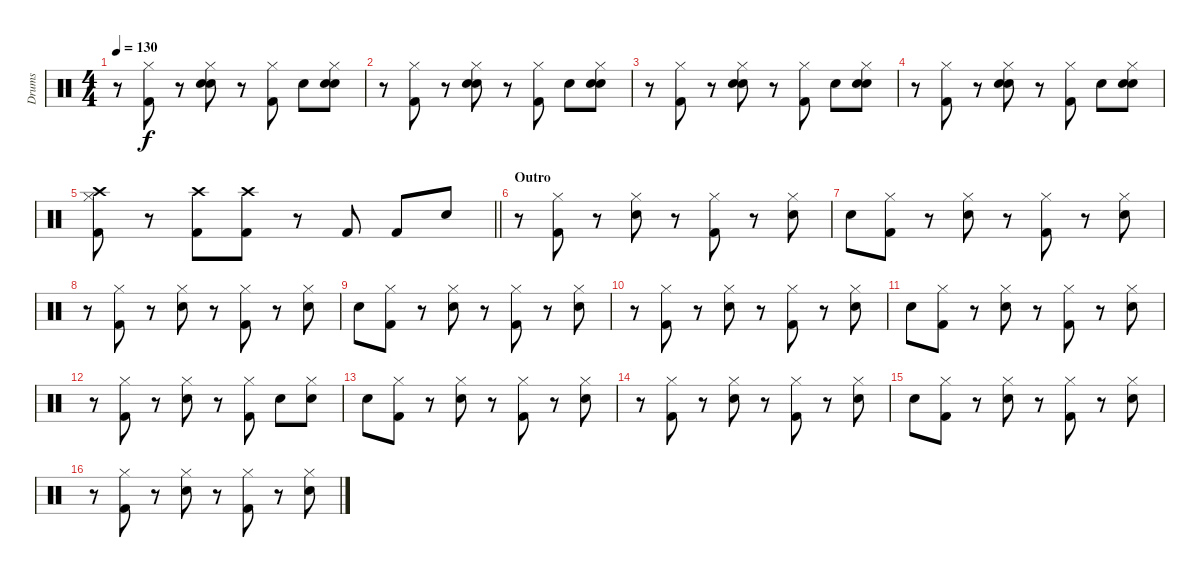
\track ("Drums" "Drums") {instrument percussion}
\staff {score}
\articulation defaults
\ts (4 4)
\tempo 130
\clef neutral
\ks c
r.8{dy f} ("Hi-Hat (closed)" "Kick (hit) 2").8 r.8 ("Hi-Hat (closed)" "Snare (hit) 2" "Hand Clap (hit)").8 r.8 ("Hi-Hat (closed)" "Kick (hit) 2").8 "Hand Clap (hit)".8 ("Hi-Hat (closed)" "Snare (hit) 2" "Hand Clap (hit)").8 |
r.8 ("Hi-Hat (closed)" "Kick (hit) 2").8 r.8 ("Hi-Hat (closed)" "Snare (hit) 2" "Hand Clap (hit)").8 r.8 ("Hi-Hat (closed)" "Kick (hit) 2").8 "Hand Clap (hit)".8 ("Hi-Hat (closed)" "Snare (hit) 2" "Hand Clap (hit)").8 |
r.8 ("Hi-Hat (closed)" "Kick (hit) 2").8 r.8 ("Hi-Hat (closed)" "Snare (hit) 2" "Hand Clap (hit)").8 r.8 ("Hi-Hat (closed)" "Kick (hit) 2").8 "Hand Clap (hit)".8 ("Hi-Hat (closed)" "Snare (hit) 2" "Hand Clap (hit)").8 |
r.8 ("Hi-Hat (closed)" "Kick (hit) 2").8 r.8 ("Hi-Hat (closed)" "Snare (hit) 2" "Hand Clap (hit)").8 r.8 ("Hi-Hat (closed)" "Kick (hit) 2").8 "Hand Clap (hit)".8 ("Hi-Hat (closed)" "Snare (hit) 2" "Hand Clap (hit)").8 |
\barLineRight lightlight
("Hi-Hat (closed)" "Crash high (hit)" "Kick (hit) 2").8 r.8 ("Crash high (hit)" "Kick (hit) 2").8 ("Crash high (hit)" "Kick (hit) 2").8 r.8 "Kick (hit) 2".8 "Kick (hit) 2".8 "Snare (hit) 2".8 |
\section ("" "Outro")
r.8 ("Hi-Hat (closed)" "Kick (hit) 2").8 r.8 ("Hi-Hat (closed)" "Snare (hit) 2").8 r.8 ("Hi-Hat (closed)" "Kick (hit) 2").8 r.8 ("Hi-Hat (closed)" "Snare (hit) 2").8 |
"Snare (hit) 2".8 ("Hi-Hat (closed)" "Kick (hit) 2").8 r.8 ("Hi-Hat (closed)" "Snare (hit) 2").8 r.8 ("Hi-Hat (closed)" "Kick (hit) 2").8 r.8 ("Hi-Hat (closed)" "Snare (hit) 2").8 |
r.8 ("Hi-Hat (closed)" "Kick (hit) 2").8 r.8 ("Hi-Hat (closed)" "Snare (hit) 2").8 r.8 ("Hi-Hat (closed)" "Kick (hit) 2").8 r.8 ("Hi-Hat (closed)" "Snare (hit) 2").8 |
"Snare (hit) 2".8 ("Hi-Hat (closed)" "Kick (hit) 2").8 r.8 ("Hi-Hat (closed)" "Snare (hit) 2").8 r.8 ("Hi-Hat (closed)" "Kick (hit) 2").8 r.8 ("Hi-Hat (closed)" "Snare (hit) 2").8 |
r.8 ("Hi-Hat (closed)" "Kick (hit) 2").8 r.8 ("Hi-Hat (closed)" "Snare (hit) 2").8 r.8 ("Hi-Hat (closed)" "Kick (hit) 2").8 r.8 ("Hi-Hat (closed)" "Snare (hit) 2").8 |
"Snare (hit) 2".8 ("Hi-Hat (closed)" "Kick (hit) 2").8 r.8 ("Hi-Hat (closed)" "Snare (hit) 2").8 r.8 ("Hi-Hat (closed)" "Kick (hit) 2").8 r.8 ("Hi-Hat (closed)" "Snare (hit) 2").8 |
r.8 ("Hi-Hat (closed)" "Kick (hit) 2").8 r.8 ("Hi-Hat (closed)" "Snare (hit) 2").8 r.8 ("Hi-Hat (closed)" "Kick (hit) 2").8 "Snare (hit) 2".8 ("Hi-Hat (closed)" "Snare (hit) 2").8 |
"Snare (hit) 2".8 ("Hi-Hat (closed)" "Kick (hit) 2").8 r.8 ("Hi-Hat (closed)" "Snare (hit) 2").8 r.8 ("Hi-Hat (closed)" "Kick (hit) 2").8 r.8 ("Hi-Hat (closed)" "Snare (hit) 2").8 |
r.8 ("Hi-Hat (closed)" "Kick (hit) 2").8 r.8 ("Hi-Hat (closed)" "Snare (hit) 2").8 r.8 ("Hi-Hat (closed)" "Kick (hit) 2").8 r.8 ("Hi-Hat (closed)" "Snare (hit) 2").8 |
"Snare (hit) 2".8 ("Hi-Hat (closed)" "Kick (hit) 2").8 r.8 ("Hi-Hat (closed)" "Snare (hit) 2").8 r.8 ("Hi-Hat (closed)" "Kick (hit) 2").8 r.8 ("Hi-Hat (closed)" "Snare (hit) 2").8 |
r.8 ("Hi-Hat (closed)" "Kick (hit) 2").8 r.8 ("Hi-Hat (closed)" "Snare (hit) 2").8 r.8 ("Hi-Hat (closed)" "Kick (hit) 2").8 r.8 ("Hi-Hat (closed)" "Snare (hit) 2").8
